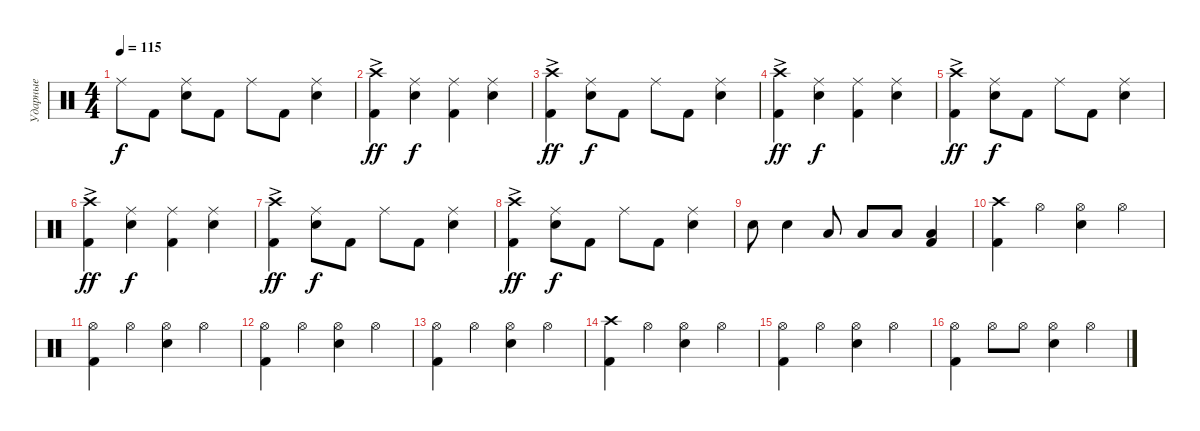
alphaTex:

\track ("Ударные" "Ударные") {instrument percussion}
\staff {score}
\articulation defaults
\ts (4 4)
\tempo 115
\clef neutral
\ks c "Ride (middle)".8{dy f} "Kick (hit) 2".8
("Snare (hit) 2" "Ride (middle)").8 "Kick (hit) 2".8 "Ride (middle)".8 "Kick (hit) 2".8 ("Snare (hit) 2" "Ride (middle)").4 |
("Kick (hit) 2" "Crash high (hit)"{ac}).4{dy ff} ("Snare (hit) 2" "Ride (middle)").4{dy f} ("Kick (hit) 2" "Ride (middle)").4 ("Snare (hit) 2" "Ride (middle)").4 |
("Kick (hit) 2" "Crash high (hit)"{ac}).4{dy ff} ("Snare (hit) 2" "Ride (middle)").8{dy f} "Kick (hit) 2".8 "Ride (middle)".8 "Kick (hit) 2".8 ("Snare (hit) 2" "Ride (middle)").4 |
("Kick (hit) 2" "Crash high (hit)"{ac}).4{dy ff} ("Snare (hit) 2" "Ride (middle)").4{dy f} ("Kick (hit) 2" "Ride (middle)").4 ("Snare (hit) 2" "Ride (middle)").4 |
("Kick (hit) 2" "Crash high (hit)"{ac}).4{dy ff} ("Snare (hit) 2" "Ride (middle)").8{dy f} "Kick (hit) 2".8 "Ride (middle)".8 "Kick (hit) 2".8 ("Snare (hit) 2" "Ride (middle)").4 |
("Kick (hit) 2" "Crash high (hit)"{ac}).4{dy ff} ("Snare (hit) 2" "Ride (middle)").4{dy f} ("Kick (hit) 2" "Ride (middle)").4 ("Snare (hit) 2" "Ride (middle)").4 |
("Kick (hit) 2" "Crash high (hit)"{ac}).4{dy ff} ("Snare (hit) 2" "Ride (middle)").8{dy f} "Kick (hit) 2".8 "Ride (middle)".8 "Kick (hit) 2".8 ("Snare (hit) 2" "Ride (middle)").4 |
("Kick (hit) 2" "Crash high (hit)"{ac}).4{dy ff} ("Snare (hit) 2" "Ride (middle)").8{dy f} "Kick (hit) 2".8 "Ride (middle)".8 "Kick (hit) 2".8 ("Snare (hit) 2" "Ride (middle)").4 |
"Snare (hit) 2".8 "Electric Snare (hit)".4 "Low Tom (hit)".8 "Low Tom (hit)".8 "Low Tom (hit)".8 ("Kick (hit) 2" "Low Tom (hit)").4 |
("Kick (hit) 2" "Crash high (hit)").4 "Hi-Hat (open)".4 ("Snare (hit) 2" "Hi-Hat (open)").4 "Hi-Hat (open)".4 |
("Kick (hit) 2" "Hi-Hat (open)").4 "Hi-Hat (open)".4 ("Snare (hit) 2" "Hi-Hat (open)").4 "Hi-Hat (open)".4 |
("Kick (hit) 2" "Hi-Hat (open)").4 "Hi-Hat (open)".4 ("Snare (hit) 2" "Hi-Hat (open)").4 "Hi-Hat (open)".4 |
("Kick (hit) 2" "Hi-Hat (open)").4 "Hi-Hat (open)".4 ("Snare (hit) 2" "Hi-Hat (open)").4 "Hi-Hat (open)".4 |
("Kick (hit) 2" "Crash high (hit)").4 "Hi-Hat (open)".4 ("Snare (hit) 2" "Hi-Hat (open)").4 "Hi-Hat (open)".4 |
("Kick (hit) 2" "Hi-Hat (open)").4 "Hi-Hat (open)".4 ("Snare (hit) 2" "Hi-Hat (open)").4 "Hi-Hat (open)".4 |
("Kick (hit) 2" "Hi-Hat (open)").4 "Hi-Hat (open)".8 "Hi-Hat (open)".8 ("Snare (hit) 2" "Hi-Hat (open)").4 "Hi-Hat (open)".4
